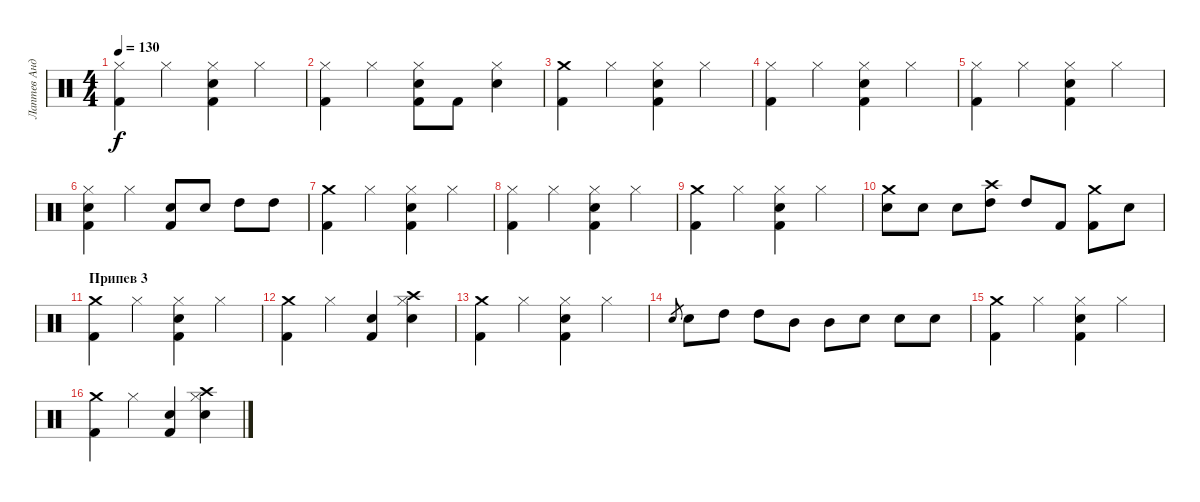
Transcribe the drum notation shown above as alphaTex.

\track ("Лаптев Андрей" "Лаптев Анд") {instrument percussion}
\staff {score}
\articulation defaults
\ts (4 4)
\tempo 130
\clef neutral
\ks c
("Hi-Hat (closed)" "Kick (hit) 2").4{dy f} "Hi-Hat (closed)".4 ("Kick (hit) 2" "Electric Snare (hit)" "Hi-Hat (closed)").4 "Hi-Hat (closed)".4 |
("Hi-Hat (closed)" "Kick (hit) 2").4 "Hi-Hat (closed)".4 ("Kick (hit) 2" "Electric Snare (hit)" "Hi-Hat (closed)").8 "Kick (hit) 2".8 ("Hi-Hat (closed)" "Electric Snare (hit)").4 |
("Crash medium (hit)" "Kick (hit) 2").4 "Hi-Hat (closed)".4 ("Kick (hit) 2" "Electric Snare (hit)" "Hi-Hat (closed)").4 "Hi-Hat (closed)".4 |
("Hi-Hat (closed)" "Kick (hit) 2").4 "Hi-Hat (closed)".4 ("Kick (hit) 2" "Electric Snare (hit)" "Hi-Hat (closed)").4 "Hi-Hat (closed)".4 |
("Hi-Hat (closed)" "Kick (hit) 2").4 "Hi-Hat (closed)".4 ("Kick (hit) 2" "Electric Snare (hit)" "Hi-Hat (closed)").4 "Hi-Hat (closed)".4 |
("Hi-Hat (closed)" "Kick (hit) 2" "Electric Snare (hit)").4 "Hi-Hat (closed)".4 ("Kick (hit) 2" "Electric Snare (hit)").8 "Electric Snare (hit)".8 "High Tom (hit)".8 "High Tom (hit)".8 |
("Crash medium (hit)" "Kick (hit) 2").4 "Hi-Hat (closed)".4 ("Kick (hit) 2" "Electric Snare (hit)" "Hi-Hat (closed)").4 "Hi-Hat (closed)".4 |
("Hi-Hat (closed)" "Kick (hit) 2").4 "Hi-Hat (closed)".4 ("Kick (hit) 2" "Electric Snare (hit)" "Hi-Hat (closed)").4 "Hi-Hat (closed)".4 |
("Crash medium (hit)" "Kick (hit) 2").4 "Hi-Hat (closed)".4 ("Kick (hit) 2" "Electric Snare (hit)" "Hi-Hat (closed)").4 "Hi-Hat (closed)".4 |
("Electric Snare (hit)" "Crash medium (hit)").8 "Electric Snare (hit)".8 "Electric Snare (hit)".8 ("High Tom (hit)" "Crash high (hit)").8 "High Tom (hit)".8 "Kick (hit) 2".8 ("Kick (hit) 2" "Crash medium (hit)").8 "Electric Snare (hit)".8 |
\section ("" "Припев 3")
("Crash medium (hit)" "Kick (hit) 2").4 "Hi-Hat (closed)".4 ("Kick (hit) 2" "Electric Snare (hit)" "Hi-Hat (closed)").4 "Hi-Hat (closed)".4 |
("Crash medium (hit)" "Kick (hit) 2").4 "Hi-Hat (closed)".4 ("Kick (hit) 2" "Electric Snare (hit)").4 ("Hi-Hat (closed)" "Electric Snare (hit)" "Crash high (hit)").4 |
("Crash medium (hit)" "Kick (hit) 2").4 "Hi-Hat (closed)".4 ("Kick (hit) 2" "Electric Snare (hit)" "Hi-Hat (closed)").4 "Hi-Hat (closed)".4 |
"Electric Snare (hit)".8{gr} "Electric Snare (hit)".8 "High Tom (hit)".8 "High Tom (hit)".8 "Mid Tom (hit)".8 "Mid Tom (hit)".8 "Electric Snare (hit)".8 "Electric Snare (hit)".8 "Electric Snare (hit)".8 |
("Crash medium (hit)" "Kick (hit) 2").4 "Hi-Hat (closed)".4 ("Kick (hit) 2" "Electric Snare (hit)" "Hi-Hat (closed)").4 "Hi-Hat (closed)".4 |
("Crash medium (hit)" "Kick (hit) 2").4 "Hi-Hat (closed)".4 ("Kick (hit) 2" "Electric Snare (hit)").4 ("Hi-Hat (closed)" "Electric Snare (hit)" "Crash high (hit)").4
